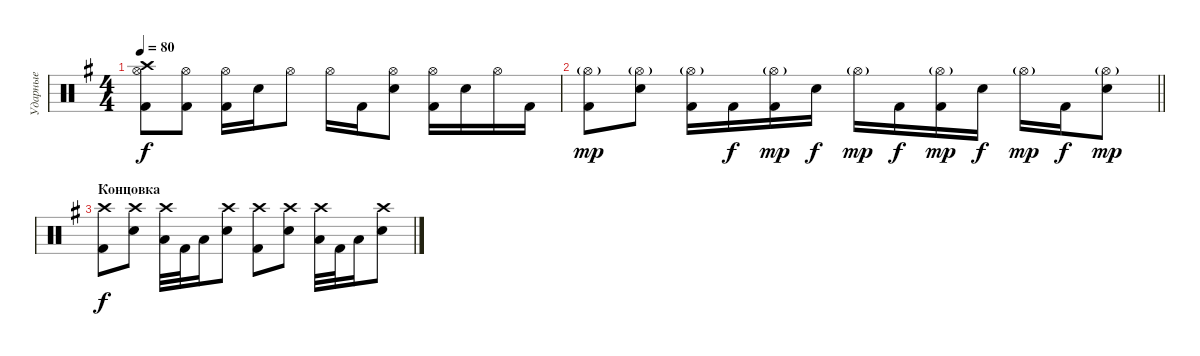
\track ("Ударные" "Ударные") {instrument percussion}
\staff {score}
\articulation defaults
\ts (4 4)
\tempo 80
\clef neutral
\ks eminor
("Crash high (hit)" "Hi-Hat (open)" "Kick (hit) 2").8{dy f} ("Hi-Hat (open)" "Kick (hit) 2").8 ("Hi-Hat (open)" "Kick (hit) 2").16 "Electric Snare (hit)".16 "Hi-Hat (open)".8 "Hi-Hat (open)".16 "Kick (hit) 2".16 ("Hi-Hat (open)" "Electric Snare (hit)").8 ("Hi-Hat (open)" "Kick (hit) 2").16 "Electric Snare (hit)".16 "Hi-Hat (open)".16 "Kick (hit) 2".16 |
\barLineRight lightlight
("Hi-Hat (open)"{g} "Kick (hit) 2").8{dy mp} ("Hi-Hat (open)"{g} "Electric Snare (hit)").8 ("Hi-Hat (open)"{g} "Kick (hit) 2").16 "Kick (hit) 2".16{dy f} ("Hi-Hat (open)"{g} "Kick (hit) 2").16{dy mp} "Electric Snare (hit)".16{dy f} "Hi-Hat (open)"{g}.16{dy mp} "Kick (hit) 2".16{dy f} ("Hi-Hat (open)"{g} "Kick (hit) 2").16{dy mp} "Electric Snare (hit)".16{dy f} "Hi-Hat (open)"{g}.16{dy mp} "Kick (hit) 2".16{dy f} ("Hi-Hat (open)"{g} "Electric Snare (hit)").8{dy mp} |
\section ("" "Концовка")
("Crash high (hit)" "Kick (hit) 2").8{dy f} ("Crash high (hit)" "Electric Snare (hit)").8 ("Crash high (hit)" "Low Tom (hit)").32 "Kick (hit) 2".32 "Low Tom (hit)".16 ("Crash high (hit)" "Electric Snare (hit)").8 ("Crash high (hit)" "Kick (hit) 2").8 ("Crash high (hit)" "Electric Snare (hit)").8 ("Crash high (hit)" "Low Tom (hit)").32 "Kick (hit) 2".32 "Low Tom (hit)".16 ("Crash high (hit)" "Electric Snare (hit)").8
